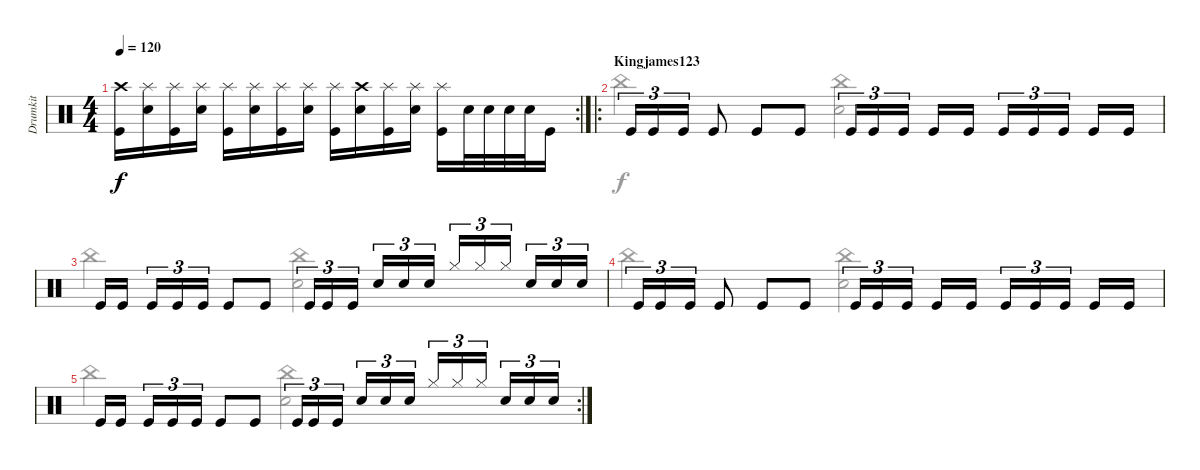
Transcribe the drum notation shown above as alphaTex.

\track ("Drumkit" "Drumkit") {instrument percussion}
\staff {score}
\articulation defaults
\voice
\rc 2
\ts (4 4)
\tempo 120
\clef neutral
\ks c
("Crash high (hit)" "Kick (hit)").16{dy f} ("Splash (hit)" "Snare (hit) 2").16 ("Splash (hit)" "Kick (hit)").16 ("Splash (hit)" "Snare (hit) 2").16 ("Splash (hit)" "Kick (hit)").16 ("Splash (hit)" "Snare (hit) 2").16 ("Splash (hit)" "Kick (hit)").16 ("Splash (hit)" "Snare (hit) 2").16 ("Splash (hit)" "Kick (hit)").16 ("Crash high (hit)" "Snare (hit) 2").16 ("Splash (hit)" "Kick (hit)").16 ("Splash (hit)" "Snare (hit) 2").16 ("Splash (hit)" "Kick (hit)").16 "Snare (hit) 2".32 "Snare (hit) 2".32 "Snare (hit) 2".32 "Snare (hit) 2".32 "Kick (hit)".16 |
\ro
\section ("" "Kingjames123")
"Kick (hit)".16{tu (3 2)} "Kick (hit)".16{tu (3 2)} "Kick (hit)".16{tu (3 2)} "Kick (hit)".8 "Kick (hit)".8 "Kick (hit)".8 "Kick (hit)".16{tu (3 2)} "Kick (hit)".16{tu (3 2)} "Kick (hit)".16{tu (3 2)} "Kick (hit)".16 "Kick (hit)".16 "Kick (hit)".16{tu (3 2)} "Kick (hit)".16{tu (3 2)} "Kick (hit)".16{tu (3 2)} "Kick (hit)".16 "Kick (hit)".16 |
"Kick (hit)".16 "Kick (hit)".16 "Kick (hit)".16{tu (3 2)} "Kick (hit)".16{tu (3 2)} "Kick (hit)".16{tu (3 2)} "Kick (hit)".8 "Kick (hit)".8 "Kick (hit)".16{tu (3 2)} "Kick (hit)".16{tu (3 2)} "Kick (hit)".16{tu (3 2)} "Snare (hit) 2".16{tu (3 2)} "Snare (hit) 2".16{tu (3 2)} "Snare (hit) 2".16{tu (3 2)} "Hi-Hat (closed)".16{tu (3 2)} "Hi-Hat (closed)".16{tu (3 2)} "Hi-Hat (closed)".16{tu (3 2)} "Snare (hit) 2".16{tu (3 2)} "Snare (hit) 2".16{tu (3 2)} "Snare (hit) 2".16{tu (3 2)} |
"Kick (hit)".16{tu (3 2)} "Kick (hit)".16{tu (3 2)} "Kick (hit)".16{tu (3 2)} "Kick (hit)".8 "Kick (hit)".8 "Kick (hit)".8 "Kick (hit)".16{tu (3 2)} "Kick (hit)".16{tu (3 2)} "Kick (hit)".16{tu (3 2)} "Kick (hit)".16 "Kick (hit)".16 "Kick (hit)".16{tu (3 2)} "Kick (hit)".16{tu (3 2)} "Kick (hit)".16{tu (3 2)} "Kick (hit)".16 "Kick (hit)".16 |
\rc 2 "Kick (hit)".16 "Kick (hit)".16 "Kick (hit)".16{tu (3 2)} "Kick (hit)".16{tu (3 2)} "Kick (hit)".16{tu (3 2)} "Kick (hit)".8 "Kick (hit)".8 "Kick (hit)".16{tu (3 2)} "Kick (hit)".16{tu (3 2)} "Kick (hit)".16{tu (3 2)} "Snare (hit) 2".16{tu (3 2)} "Snare (hit) 2".16{tu (3 2)} "Snare (hit) 2".16{tu (3 2)} "Hi-Hat (closed)".16{tu (3 2)} "Hi-Hat (closed)".16{tu (3 2)} "Hi-Hat (closed)".16{tu (3 2)} "Snare (hit) 2".16{tu (3 2)} "Snare (hit) 2".16{tu (3 2)} "Snare (hit) 2".16{tu (3 2)}
|
\voice
\clef neutral
\ottava regular
\simile none
\ks c
|
"China (hit)".2 ("China (hit)" "Snare (hit) 2").2 |
"China (hit)".2 ("China (hit)" "Snare (hit) 2").2 |
"China (hit)".2 ("China (hit)" "Snare (hit) 2").2 |
"China (hit)".2 ("China (hit)" "Snare (hit) 2").2 |
